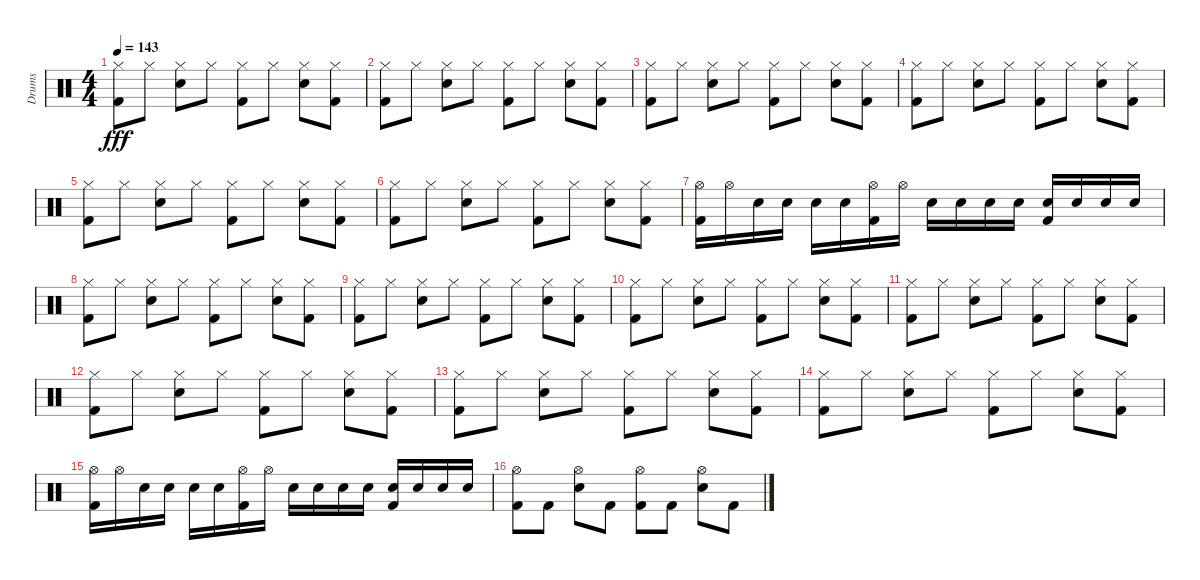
\track ("Drums" "Drums") {instrument percussion}
\staff {score}
\articulation defaults
\ts (4 4)
\tempo 143
\clef neutral
\ks c
("Kick (hit) 2" "Hi-Hat (closed)").8{dy fff} "Hi-Hat (closed)".8 ("Snare (hit) 2" "Hi-Hat (closed)").8 "Hi-Hat (closed)".8 ("Kick (hit) 2" "Hi-Hat (closed)").8 "Hi-Hat (closed)".8 ("Snare (hit) 2" "Hi-Hat (closed)").8 ("Kick (hit) 2" "Hi-Hat (closed)").8 |
("Kick (hit) 2" "Hi-Hat (closed)").8 "Hi-Hat (closed)".8 ("Snare (hit) 2" "Hi-Hat (closed)").8 "Hi-Hat (closed)".8 ("Kick (hit) 2" "Hi-Hat (closed)").8 "Hi-Hat (closed)".8 ("Snare (hit) 2" "Hi-Hat (closed)").8 ("Kick (hit) 2" "Hi-Hat (closed)").8 |
("Kick (hit) 2" "Hi-Hat (closed)").8 "Hi-Hat (closed)".8 ("Snare (hit) 2" "Hi-Hat (closed)").8 "Hi-Hat (closed)".8 ("Kick (hit) 2" "Hi-Hat (closed)").8 "Hi-Hat (closed)".8 ("Snare (hit) 2" "Hi-Hat (closed)").8 ("Kick (hit) 2" "Hi-Hat (closed)").8 |
("Kick (hit) 2" "Hi-Hat (closed)").8 "Hi-Hat (closed)".8 ("Snare (hit) 2" "Hi-Hat (closed)").8 "Hi-Hat (closed)".8 ("Kick (hit) 2" "Hi-Hat (closed)").8 "Hi-Hat (closed)".8 ("Snare (hit) 2" "Hi-Hat (closed)").8 ("Kick (hit) 2" "Hi-Hat (closed)").8 |
("Kick (hit) 2" "Hi-Hat (closed)").8 "Hi-Hat (closed)".8 ("Snare (hit) 2" "Hi-Hat (closed)").8 "Hi-Hat (closed)".8 ("Kick (hit) 2" "Hi-Hat (closed)").8 "Hi-Hat (closed)".8 ("Snare (hit) 2" "Hi-Hat (closed)").8 ("Kick (hit) 2" "Hi-Hat (closed)").8 |
("Kick (hit) 2" "Hi-Hat (closed)").8 "Hi-Hat (closed)".8 ("Snare (hit) 2" "Hi-Hat (closed)").8 "Hi-Hat (closed)".8 ("Kick (hit) 2" "Hi-Hat (closed)").8 "Hi-Hat (closed)".8 ("Snare (hit) 2" "Hi-Hat (closed)").8 ("Kick (hit) 2" "Hi-Hat (closed)").8 |
("Kick (hit) 2" "Hi-Hat (open)").16 "Hi-Hat (open)".16 "Snare (hit) 2".16 "Snare (hit) 2".16 "Snare (hit) 2".16 "Snare (hit) 2".16 ("Kick (hit) 2" "Hi-Hat (open)").16 "Hi-Hat (open)".16 "Snare (hit) 2".16 "Snare (hit) 2".16 "Snare (hit) 2".16 "Snare (hit) 2".16 ("Kick (hit) 2" "Snare (hit) 2").16 "Snare (hit) 2".16 "Snare (hit) 2".16 "Snare (hit) 2".16 |
("Kick (hit) 2" "Hi-Hat (closed)").8 "Hi-Hat (closed)".8 ("Snare (hit) 2" "Hi-Hat (closed)").8 "Hi-Hat (closed)".8 ("Kick (hit) 2" "Hi-Hat (closed)").8 "Hi-Hat (closed)".8 ("Snare (hit) 2" "Hi-Hat (closed)").8 ("Kick (hit) 2" "Hi-Hat (closed)").8 |
("Kick (hit) 2" "Hi-Hat (closed)").8 "Hi-Hat (closed)".8 ("Snare (hit) 2" "Hi-Hat (closed)").8 "Hi-Hat (closed)".8 ("Kick (hit) 2" "Hi-Hat (closed)").8 "Hi-Hat (closed)".8 ("Snare (hit) 2" "Hi-Hat (closed)").8 ("Kick (hit) 2" "Hi-Hat (closed)").8 |
("Kick (hit) 2" "Hi-Hat (closed)").8 "Hi-Hat (closed)".8 ("Snare (hit) 2" "Hi-Hat (closed)").8 "Hi-Hat (closed)".8 ("Kick (hit) 2" "Hi-Hat (closed)").8 "Hi-Hat (closed)".8 ("Snare (hit) 2" "Hi-Hat (closed)").8 ("Kick (hit) 2" "Hi-Hat (closed)").8 |
("Kick (hit) 2" "Hi-Hat (closed)").8 "Hi-Hat (closed)".8 ("Snare (hit) 2" "Hi-Hat (closed)").8 "Hi-Hat (closed)".8 ("Kick (hit) 2" "Hi-Hat (closed)").8 "Hi-Hat (closed)".8 ("Snare (hit) 2" "Hi-Hat (closed)").8 ("Kick (hit) 2" "Hi-Hat (closed)").8 |
("Kick (hit) 2" "Hi-Hat (closed)").8 "Hi-Hat (closed)".8 ("Snare (hit) 2" "Hi-Hat (closed)").8 "Hi-Hat (closed)".8 ("Kick (hit) 2" "Hi-Hat (closed)").8 "Hi-Hat (closed)".8 ("Snare (hit) 2" "Hi-Hat (closed)").8 ("Kick (hit) 2" "Hi-Hat (closed)").8 |
("Kick (hit) 2" "Hi-Hat (closed)").8 "Hi-Hat (closed)".8 ("Snare (hit) 2" "Hi-Hat (closed)").8 "Hi-Hat (closed)".8 ("Kick (hit) 2" "Hi-Hat (closed)").8 "Hi-Hat (closed)".8 ("Snare (hit) 2" "Hi-Hat (closed)").8 ("Kick (hit) 2" "Hi-Hat (closed)").8 |
("Kick (hit) 2" "Hi-Hat (closed)").8 "Hi-Hat (closed)".8 ("Snare (hit) 2" "Hi-Hat (closed)").8 "Hi-Hat (closed)".8 ("Kick (hit) 2" "Hi-Hat (closed)").8 "Hi-Hat (closed)".8 ("Snare (hit) 2" "Hi-Hat (closed)").8 ("Kick (hit) 2" "Hi-Hat (closed)").8 |
("Kick (hit) 2" "Hi-Hat (open)").16 "Hi-Hat (open)".16 "Snare (hit) 2".16 "Snare (hit) 2".16 "Snare (hit) 2".16 "Snare (hit) 2".16 ("Kick (hit) 2" "Hi-Hat (open)").16 "Hi-Hat (open)".16 "Snare (hit) 2".16 "Snare (hit) 2".16 "Snare (hit) 2".16 "Snare (hit) 2".16 ("Kick (hit) 2" "Snare (hit) 2").16 "Snare (hit) 2".16 "Snare (hit) 2".16 "Snare (hit) 2".16 |
("Hi-Hat (open)" "Kick (hit) 2").8 "Kick (hit) 2".8 ("Snare (hit) 2" "Hi-Hat (open)").8 "Kick (hit) 2".8 ("Hi-Hat (open)" "Kick (hit) 2").8 "Kick (hit) 2".8 ("Hi-Hat (open)" "Snare (hit) 2").8 "Kick (hit) 2".8
